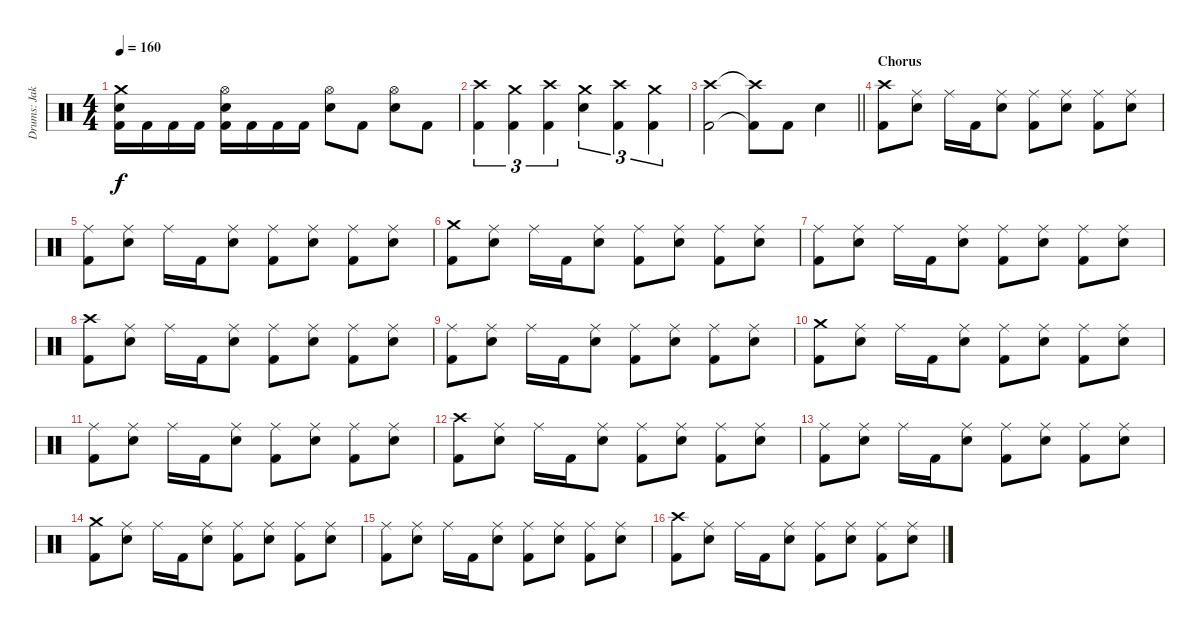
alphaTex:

\track ("Drums: Jake" "Drums: Jak") {instrument percussion}
\staff {score}
\articulation defaults
\ts (4 4)
\tempo 160
\clef neutral
\ks c
("Crash medium (hit)" "Snare (hit) 2" "Kick (hit) 2").16{dy f} "Kick (hit) 2".16 "Kick (hit) 2".16 "Kick (hit) 2".16 ("Hi-Hat (open)" "Snare (hit) 2" "Kick (hit) 2").16 "Kick (hit) 2".16 "Kick (hit) 2".16 "Kick (hit) 2".16 ("Hi-Hat (open)" "Snare (hit) 2").8 "Kick (hit) 2".8 ("Hi-Hat (open)" "Snare (hit) 2").8 "Kick (hit) 2".8 |
("Crash high (hit)" "Kick (hit) 2").4{tu (3 2)} ("Crash medium (hit)" "Kick (hit) 2").4{tu (3 2)} ("Crash high (hit)" "Kick (hit) 2").4{tu (3 2)} ("Crash medium (hit)" "Snare (hit) 2").4{tu (3 2)} ("Crash high (hit)" "Kick (hit) 2").4{tu (3 2)} ("Crash medium (hit)" "Kick (hit) 2").4{tu (3 2)} |
\barLineRight lightlight
("Crash high (hit)" "Kick (hit) 2").2 ("Crash high (hit)"{t} "Kick (hit) 2"{t}).8 "Kick (hit) 2".8 "Snare (hit) 2".4 |
\section ("" "Chorus")
("Crash high (hit)" "Kick (hit) 2").8 ("Ride (middle)" "Snare (hit) 2").8 "Ride (middle)".16 "Kick (hit) 2".16 ("Ride (middle)" "Snare (hit) 2").8 ("Ride (middle)" "Kick (hit) 2").8 ("Ride (middle)" "Snare (hit) 2").8 ("Ride (middle)" "Kick (hit) 2").8 ("Ride (middle)" "Snare (hit) 2").8 |
("Ride (middle)" "Kick (hit) 2").8 ("Ride (middle)" "Snare (hit) 2").8 "Ride (middle)".16 "Kick (hit) 2".16 ("Ride (middle)" "Snare (hit) 2").8 ("Ride (middle)" "Kick (hit) 2").8 ("Ride (middle)" "Snare (hit) 2").8 ("Ride (middle)" "Kick (hit) 2").8 ("Ride (middle)" "Snare (hit) 2").8 |
("Crash medium (hit)" "Kick (hit) 2").8 ("Ride (middle)" "Snare (hit) 2").8 "Ride (middle)".16 "Kick (hit) 2".16 ("Ride (middle)" "Snare (hit) 2").8 ("Ride (middle)" "Kick (hit) 2").8 ("Ride (middle)" "Snare (hit) 2").8 ("Ride (middle)" "Kick (hit) 2").8 ("Ride (middle)" "Snare (hit) 2").8 |
("Ride (middle)" "Kick (hit) 2").8 ("Ride (middle)" "Snare (hit) 2").8 "Ride (middle)".16 "Kick (hit) 2".16 ("Ride (middle)" "Snare (hit) 2").8 ("Ride (middle)" "Kick (hit) 2").8 ("Ride (middle)" "Snare (hit) 2").8 ("Ride (middle)" "Kick (hit) 2").8 ("Ride (middle)" "Snare (hit) 2").8 |
("Crash high (hit)" "Kick (hit) 2").8 ("Ride (middle)" "Snare (hit) 2").8 "Ride (middle)".16 "Kick (hit) 2".16 ("Ride (middle)" "Snare (hit) 2").8 ("Ride (middle)" "Kick (hit) 2").8 ("Ride (middle)" "Snare (hit) 2").8 ("Ride (middle)" "Kick (hit) 2").8 ("Ride (middle)" "Snare (hit) 2").8 |
("Ride (middle)" "Kick (hit) 2").8 ("Ride (middle)" "Snare (hit) 2").8 "Ride (middle)".16 "Kick (hit) 2".16 ("Ride (middle)" "Snare (hit) 2").8 ("Ride (middle)" "Kick (hit) 2").8 ("Ride (middle)" "Snare (hit) 2").8 ("Ride (middle)" "Kick (hit) 2").8 ("Ride (middle)" "Snare (hit) 2").8 |
("Crash medium (hit)" "Kick (hit) 2").8 ("Ride (middle)" "Snare (hit) 2").8 "Ride (middle)".16 "Kick (hit) 2".16 ("Ride (middle)" "Snare (hit) 2").8 ("Ride (middle)" "Kick (hit) 2").8 ("Ride (middle)" "Snare (hit) 2").8 ("Ride (middle)" "Kick (hit) 2").8 ("Ride (middle)" "Snare (hit) 2").8 |
("Ride (middle)" "Kick (hit) 2").8 ("Ride (middle)" "Snare (hit) 2").8 "Ride (middle)".16 "Kick (hit) 2".16 ("Ride (middle)" "Snare (hit) 2").8 ("Ride (middle)" "Kick (hit) 2").8 ("Ride (middle)" "Snare (hit) 2").8 ("Ride (middle)" "Kick (hit) 2").8 ("Ride (middle)" "Snare (hit) 2").8 |
("Crash high (hit)" "Kick (hit) 2").8 ("Ride (middle)" "Snare (hit) 2").8 "Ride (middle)".16 "Kick (hit) 2".16 ("Ride (middle)" "Snare (hit) 2").8 ("Ride (middle)" "Kick (hit) 2").8 ("Ride (middle)" "Snare (hit) 2").8 ("Ride (middle)" "Kick (hit) 2").8 ("Ride (middle)" "Snare (hit) 2").8 |
("Ride (middle)" "Kick (hit) 2").8 ("Ride (middle)" "Snare (hit) 2").8 "Ride (middle)".16 "Kick (hit) 2".16 ("Ride (middle)" "Snare (hit) 2").8 ("Ride (middle)" "Kick (hit) 2").8 ("Ride (middle)" "Snare (hit) 2").8 ("Ride (middle)" "Kick (hit) 2").8 ("Ride (middle)" "Snare (hit) 2").8 |
("Crash medium (hit)" "Kick (hit) 2").8 ("Ride (middle)" "Snare (hit) 2").8 "Ride (middle)".16 "Kick (hit) 2".16 ("Ride (middle)" "Snare (hit) 2").8 ("Ride (middle)" "Kick (hit) 2").8 ("Ride (middle)" "Snare (hit) 2").8 ("Ride (middle)" "Kick (hit) 2").8 ("Ride (middle)" "Snare (hit) 2").8 |
("Ride (middle)" "Kick (hit) 2").8 ("Ride (middle)" "Snare (hit) 2").8 "Ride (middle)".16 "Kick (hit) 2".16 ("Ride (middle)" "Snare (hit) 2").8 ("Ride (middle)" "Kick (hit) 2").8 ("Ride (middle)" "Snare (hit) 2").8 ("Ride (middle)" "Kick (hit) 2").8 ("Ride (middle)" "Snare (hit) 2").8 |
("Crash high (hit)" "Kick (hit) 2").8 ("Ride (middle)" "Snare (hit) 2").8 "Ride (middle)".16 "Kick (hit) 2".16 ("Ride (middle)" "Snare (hit) 2").8 ("Ride (middle)" "Kick (hit) 2").8 ("Ride (middle)" "Snare (hit) 2").8 ("Ride (middle)" "Kick (hit) 2").8 ("Ride (middle)" "Snare (hit) 2").8
